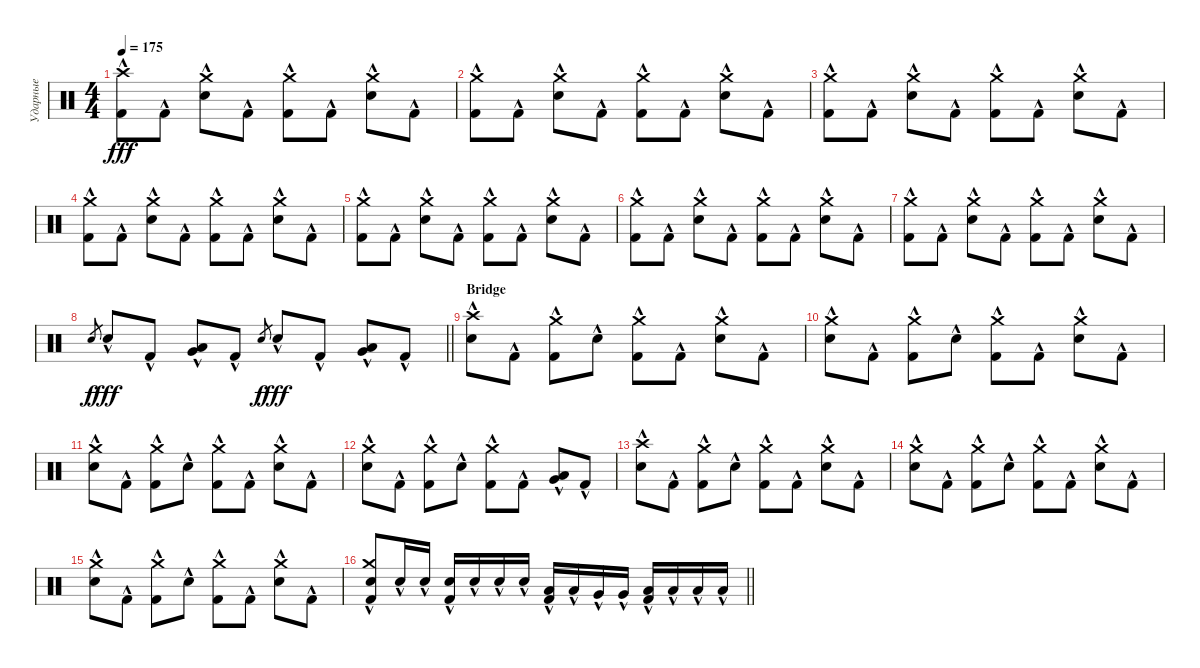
\track ("Ударные" "Ударные") {instrument percussion}
\staff {score}
\articulation defaults
\ts (4 4)
\tempo 175
\clef neutral
\ks c
("Crash high (hit)"{hac} "Kick (hit) 2"{hac}).8{dy fff} "Kick (hit) 2"{hac}.8 ("Crash medium (hit)"{hac} "Snare (hit) 2"{hac}).8 "Kick (hit) 2"{hac}.8 ("Crash medium (hit)"{hac} "Kick (hit) 2"{hac}).8 "Kick (hit) 2"{hac}.8 ("Crash medium (hit)"{hac} "Snare (hit) 2"{hac}).8 "Kick (hit) 2"{hac}.8 |
("Crash medium (hit)"{hac} "Kick (hit) 2"{hac}).8 "Kick (hit) 2"{hac}.8 ("Crash medium (hit)"{hac} "Snare (hit) 2"{hac}).8 "Kick (hit) 2"{hac}.8 ("Crash medium (hit)"{hac} "Kick (hit) 2"{hac}).8 "Kick (hit) 2"{hac}.8 ("Crash medium (hit)"{hac} "Snare (hit) 2"{hac}).8 "Kick (hit) 2"{hac}.8 |
("Crash medium (hit)"{hac} "Kick (hit) 2"{hac}).8 "Kick (hit) 2"{hac}.8 ("Crash medium (hit)"{hac} "Snare (hit) 2"{hac}).8 "Kick (hit) 2"{hac}.8 ("Crash medium (hit)"{hac} "Kick (hit) 2"{hac}).8 "Kick (hit) 2"{hac}.8 ("Crash medium (hit)"{hac} "Snare (hit) 2"{hac}).8 "Kick (hit) 2"{hac}.8 |
("Crash medium (hit)"{hac} "Kick (hit) 2"{hac}).8 "Kick (hit) 2"{hac}.8 ("Crash medium (hit)"{hac} "Snare (hit) 2"{hac}).8 "Kick (hit) 2"{hac}.8 ("Crash medium (hit)"{hac} "Kick (hit) 2"{hac}).8 "Kick (hit) 2"{hac}.8 ("Crash medium (hit)"{hac} "Snare (hit) 2"{hac}).8 "Kick (hit) 2"{hac}.8 |
("Crash medium (hit)"{hac} "Kick (hit) 2"{hac}).8 "Kick (hit) 2"{hac}.8 ("Crash medium (hit)"{hac} "Snare (hit) 2"{hac}).8 "Kick (hit) 2"{hac}.8 ("Crash medium (hit)"{hac} "Kick (hit) 2"{hac}).8 "Kick (hit) 2"{hac}.8 ("Crash medium (hit)"{hac} "Snare (hit) 2"{hac}).8 "Kick (hit) 2"{hac}.8 |
("Crash medium (hit)"{hac} "Kick (hit) 2"{hac}).8 "Kick (hit) 2"{hac}.8 ("Crash medium (hit)"{hac} "Snare (hit) 2"{hac}).8 "Kick (hit) 2"{hac}.8 ("Crash medium (hit)"{hac} "Kick (hit) 2"{hac}).8 "Kick (hit) 2"{hac}.8 ("Crash medium (hit)"{hac} "Snare (hit) 2"{hac}).8 "Kick (hit) 2"{hac}.8 |
("Crash medium (hit)"{hac} "Kick (hit) 2"{hac}).8 "Kick (hit) 2"{hac}.8 ("Crash medium (hit)"{hac} "Snare (hit) 2"{hac}).8 "Kick (hit) 2"{hac}.8 ("Crash medium (hit)"{hac} "Kick (hit) 2"{hac}).8 "Kick (hit) 2"{hac}.8 ("Crash medium (hit)"{hac} "Snare (hit) 2"{hac}).8 "Kick (hit) 2"{hac}.8 |
\barLineRight lightlight "Snare (hit) 2".8{gr dy f} "Snare (hit) 2"{hac}.8{dy fff} "Kick (hit) 2"{hac}.8
("Low Tom (hit)"{hac} "Very Low Tom (hit)"{hac}).8 "Kick (hit) 2"{hac}.8 "Snare (hit) 2".8{gr dy f} "Snare (hit) 2"{hac}.8{dy fff} "Kick (hit) 2"{hac}.8 ("Very Low Tom (hit)"{hac} "Low Floor Tom (hit)"{hac}).8 "Kick (hit) 2"{hac}.8 |
\section ("" "Bridge")
("Crash high (hit)"{hac} "Snare (hit) 2"{hac}).8 "Kick (hit) 2"{hac}.8 ("Crash medium (hit)"{hac} "Kick (hit) 2"{hac}).8 "Snare (hit) 2"{hac}.8 ("Crash medium (hit)"{hac} "Kick (hit) 2"{hac}).8 "Kick (hit) 2"{hac}.8 ("Crash medium (hit)"{hac} "Snare (hit) 2"{hac}).8 "Kick (hit) 2"{hac}.8 |
("Crash medium (hit)"{hac} "Snare (hit) 2"{hac}).8 "Kick (hit) 2"{hac}.8 ("Crash medium (hit)"{hac} "Kick (hit) 2"{hac}).8 "Snare (hit) 2"{hac}.8 ("Crash medium (hit)"{hac} "Kick (hit) 2"{hac}).8 "Kick (hit) 2"{hac}.8 ("Crash medium (hit)"{hac} "Snare (hit) 2"{hac}).8 "Kick (hit) 2"{hac}.8 |
("Crash medium (hit)"{hac} "Snare (hit) 2"{hac}).8 "Kick (hit) 2"{hac}.8 ("Crash medium (hit)"{hac} "Kick (hit) 2"{hac}).8 "Snare (hit) 2"{hac}.8 ("Crash medium (hit)"{hac} "Kick (hit) 2"{hac}).8 "Kick (hit) 2"{hac}.8 ("Crash medium (hit)"{hac} "Snare (hit) 2"{hac}).8 "Kick (hit) 2"{hac}.8 |
("Crash medium (hit)"{hac} "Snare (hit) 2"{hac}).8 "Kick (hit) 2"{hac}.8 ("Crash medium (hit)"{hac} "Kick (hit) 2"{hac}).8 "Snare (hit) 2"{hac}.8 ("Crash medium (hit)"{hac} "Kick (hit) 2"{hac}).8 "Kick (hit) 2"{hac}.8 ("Very Low Tom (hit)"{hac} "Low Floor Tom (hit)"{hac}).8 "Kick (hit) 2"{hac}.8 |
("Crash high (hit)"{hac} "Snare (hit) 2"{hac}).8 "Kick (hit) 2"{hac}.8 ("Crash medium (hit)"{hac} "Kick (hit) 2"{hac}).8 "Snare (hit) 2"{hac}.8 ("Crash medium (hit)"{hac} "Kick (hit) 2"{hac}).8 "Kick (hit) 2"{hac}.8 ("Crash medium (hit)"{hac} "Snare (hit) 2"{hac}).8 "Kick (hit) 2"{hac}.8 |
("Crash medium (hit)"{hac} "Snare (hit) 2"{hac}).8 "Kick (hit) 2"{hac}.8 ("Crash medium (hit)"{hac} "Kick (hit) 2"{hac}).8 "Snare (hit) 2"{hac}.8 ("Crash medium (hit)"{hac} "Kick (hit) 2"{hac}).8 "Kick (hit) 2"{hac}.8 ("Crash medium (hit)"{hac} "Snare (hit) 2"{hac}).8 "Kick (hit) 2"{hac}.8 |
("Crash medium (hit)"{hac} "Snare (hit) 2"{hac}).8 "Kick (hit) 2"{hac}.8 ("Crash medium (hit)"{hac} "Kick (hit) 2"{hac}).8 "Snare (hit) 2"{hac}.8 ("Crash medium (hit)"{hac} "Kick (hit) 2"{hac}).8 "Kick (hit) 2"{hac}.8 ("Crash medium (hit)"{hac} "Snare (hit) 2"{hac}).8 "Kick (hit) 2"{hac}.8 |
\barLineRight lightlight
("Crash medium (hit)"{hac} "Snare (hit) 2"{hac} "Kick (hit) 2"{hac}).8 "Snare (hit) 2"{hac}.16 "Snare (hit) 2"{hac}.16 ("Snare (hit) 2"{hac} "Kick (hit) 2"{hac}).16 "Snare (hit) 2"{hac}.16 "Snare (hit) 2"{hac}.16 "Snare (hit) 2"{hac}.16 ("Low Tom (hit)"{hac} "Kick (hit) 2"{hac}).16 "Low Tom (hit)"{hac}.16 "Very Low Tom (hit)"{hac}.16 "Very Low Tom (hit)"{hac}.16 ("Low Floor Tom (hit)"{hac} "Kick (hit) 2"{hac}).16 "Low Floor Tom (hit)"{hac}.16 "Low Floor Tom (hit)"{hac}.16 "Low Floor Tom (hit)"{hac}.16
